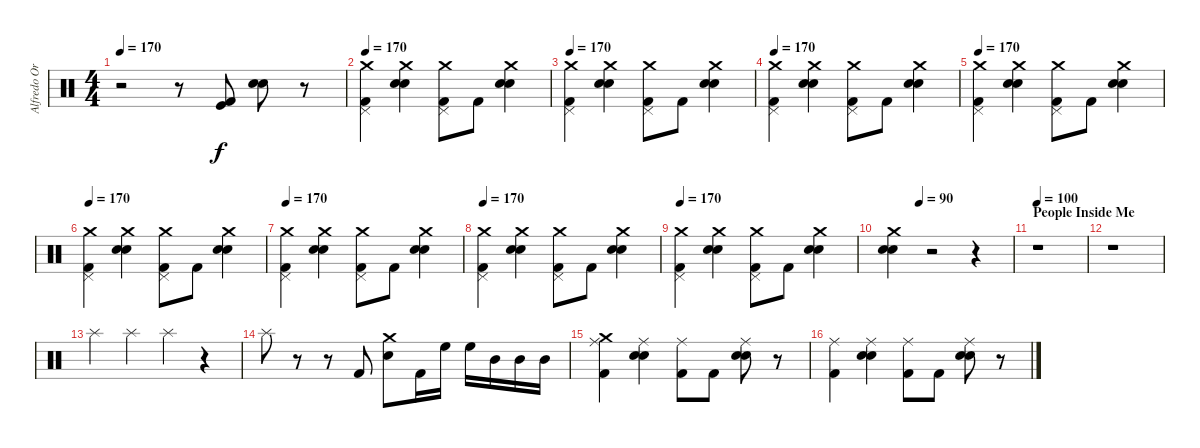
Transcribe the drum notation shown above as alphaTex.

\track ("Alfredo Ortiz (Drums)" "Alfredo Or") {instrument percussion}
\staff {score}
\articulation defaults
\ts (4 4)
\tempo 170
\clef neutral
\ks c
r.2{dy f} r.8 ("Kick (hit) 2" "Kick (hit)").8 ("Snare (hit) 2" "Electric Snare (hit)").8 r.8 |
\tempo 170
("Kick (hit) 2" "Pedal Hi-Hat (hit)" "Crash medium (hit)").4 ("Snare (hit) 2" "Electric Snare (hit)" "Crash medium (hit)").4 ("Kick (hit) 2" "Pedal Hi-Hat (hit)" "Crash medium (hit)").8 "Kick (hit) 2".8 ("Snare (hit) 2" "Electric Snare (hit)" "Crash medium (hit)").4 |
\tempo 170
("Kick (hit) 2" "Pedal Hi-Hat (hit)" "Crash medium (hit)").4 ("Snare (hit) 2" "Electric Snare (hit)" "Crash medium (hit)").4 ("Kick (hit) 2" "Pedal Hi-Hat (hit)" "Crash medium (hit)").8 "Kick (hit) 2".8 ("Snare (hit) 2" "Electric Snare (hit)" "Crash medium (hit)").4 |
\tempo 170
("Kick (hit) 2" "Pedal Hi-Hat (hit)" "Crash medium (hit)").4 ("Snare (hit) 2" "Electric Snare (hit)" "Crash medium (hit)").4 ("Kick (hit) 2" "Pedal Hi-Hat (hit)" "Crash medium (hit)").8 "Kick (hit) 2".8 ("Snare (hit) 2" "Electric Snare (hit)" "Crash medium (hit)").4 |
\tempo 170
("Kick (hit) 2" "Pedal Hi-Hat (hit)" "Crash medium (hit)").4 ("Snare (hit) 2" "Electric Snare (hit)" "Crash medium (hit)").4 ("Kick (hit) 2" "Pedal Hi-Hat (hit)" "Crash medium (hit)").8 "Kick (hit) 2".8 ("Snare (hit) 2" "Electric Snare (hit)" "Crash medium (hit)").4 |
\tempo 170
("Kick (hit) 2" "Pedal Hi-Hat (hit)" "Crash medium (hit)").4 ("Snare (hit) 2" "Electric Snare (hit)" "Crash medium (hit)").4 ("Kick (hit) 2" "Pedal Hi-Hat (hit)" "Crash medium (hit)").8 "Kick (hit) 2".8 ("Snare (hit) 2" "Electric Snare (hit)" "Crash medium (hit)").4 |
\tempo 170
("Kick (hit) 2" "Pedal Hi-Hat (hit)" "Crash medium (hit)").4 ("Snare (hit) 2" "Electric Snare (hit)" "Crash medium (hit)").4 ("Kick (hit) 2" "Pedal Hi-Hat (hit)" "Crash medium (hit)").8 "Kick (hit) 2".8 ("Snare (hit) 2" "Electric Snare (hit)" "Crash medium (hit)").4 |
\tempo 170
("Kick (hit) 2" "Pedal Hi-Hat (hit)" "Crash medium (hit)").4 ("Snare (hit) 2" "Electric Snare (hit)" "Crash medium (hit)").4 ("Kick (hit) 2" "Pedal Hi-Hat (hit)" "Crash medium (hit)").8 "Kick (hit) 2".8 ("Snare (hit) 2" "Electric Snare (hit)" "Crash medium (hit)").4 |
\tempo 170
("Kick (hit) 2" "Pedal Hi-Hat (hit)" "Crash medium (hit)").4 ("Snare (hit) 2" "Electric Snare (hit)" "Crash medium (hit)").4 ("Kick (hit) 2" "Pedal Hi-Hat (hit)" "Crash medium (hit)").8 "Kick (hit) 2".8 ("Snare (hit) 2" "Electric Snare (hit)" "Crash medium (hit)").4 |
\tempo (90 0.25)
("Snare (hit) 2" "Electric Snare (hit)" "Crash medium (hit)").4 r.2 r.4 |
\section ("" "People Inside Me")
\tempo 100
r.1 |
r.1 |
"Splash (hit)".4 "Splash (hit)".4 "Splash (hit)".4 r.4 |
"Splash (hit)".8 r.8 r.8 "Kick (hit) 2".8 ("Snare (hit) 2" "Crash medium (hit)").8 "Kick (hit) 2".16 "High Floor Tom (hit)".16 "High Floor Tom (hit)".16 "Mid Tom (hit)".16 "Mid Tom (hit)".16 "Mid Tom (hit)".16 |
("Kick (hit) 2" "Ride (middle)" "Crash medium (hit)").4 ("Snare (hit) 2" "Electric Snare (hit)" "Ride (middle)").4 ("Kick (hit) 2" "Ride (middle)").8 "Kick (hit) 2".8 ("Snare (hit) 2" "Electric Snare (hit)" "Ride (middle)").8 r.8 |
("Kick (hit) 2" "Ride (middle)").4 ("Snare (hit) 2" "Electric Snare (hit)" "Ride (middle)").4 ("Kick (hit) 2" "Ride (middle)").8 "Kick (hit) 2".8 ("Snare (hit) 2" "Electric Snare (hit)" "Ride (middle)").8 r.8
